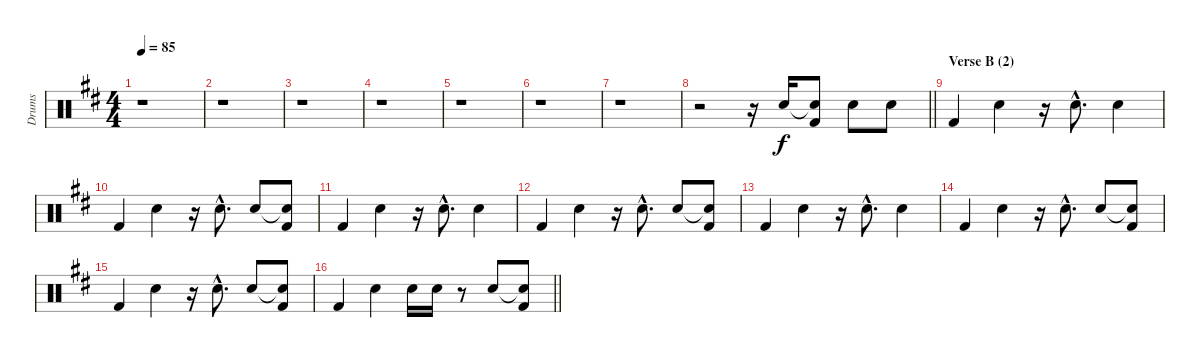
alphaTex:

\track ("Drums" "Drums") {instrument percussion}
\staff {score}
\articulation defaults
\ts (4 4)
\tempo 85
\clef neutral
\ks d
r.1{dy f} |
r.1 |
r.1 |
r.1 |
r.1 |
r.1 |
r.1 |
\barLineRight lightlight
r.2 r.16 "Electric Snare (hit)".16 ("Snare (hit)"{t} "Kick (hit) 2").8 "Electric Snare (hit)".8 "Electric Snare (hit)".8 |
\section ("" "Verse B (2)")
"Kick (hit) 2".4 "Electric Snare (hit)".4 r.16 "Electric Snare (hit)"{hac}.8{d} "Electric Snare (hit)".4 |
"Kick (hit) 2".4 "Electric Snare (hit)".4 r.16 "Electric Snare (hit)"{hac}.8{d} "Electric Snare (hit)".8 ("Snare (hit)"{t} "Kick (hit) 2").8 |
"Kick (hit) 2".4 "Electric Snare (hit)".4 r.16 "Electric Snare (hit)"{hac}.8{d} "Electric Snare (hit)".4 |
"Kick (hit) 2".4 "Electric Snare (hit)".4 r.16 "Electric Snare (hit)"{hac}.8{d} "Electric Snare (hit)".8 ("Snare (hit)"{t} "Kick (hit) 2").8 |
"Kick (hit) 2".4 "Electric Snare (hit)".4 r.16 "Electric Snare (hit)"{hac}.8{d} "Electric Snare (hit)".4 |
"Kick (hit) 2".4 "Electric Snare (hit)".4 r.16 "Electric Snare (hit)"{hac}.8{d} "Electric Snare (hit)".8 ("Snare (hit)"{t} "Kick (hit) 2").8 |
"Kick (hit) 2".4 "Electric Snare (hit)".4 r.16 "Electric Snare (hit)"{hac}.8{d} "Electric Snare (hit)".8 ("Snare (hit)"{t} "Kick (hit) 2").8 |
\barLineRight lightlight "Kick (hit) 2".4 "Electric Snare (hit)".4 "Electric Snare (hit)".16 "Electric Snare (hit)".16
r.8 "Electric Snare (hit)".8 ("Snare (hit)"{t} "Kick (hit) 2").8
